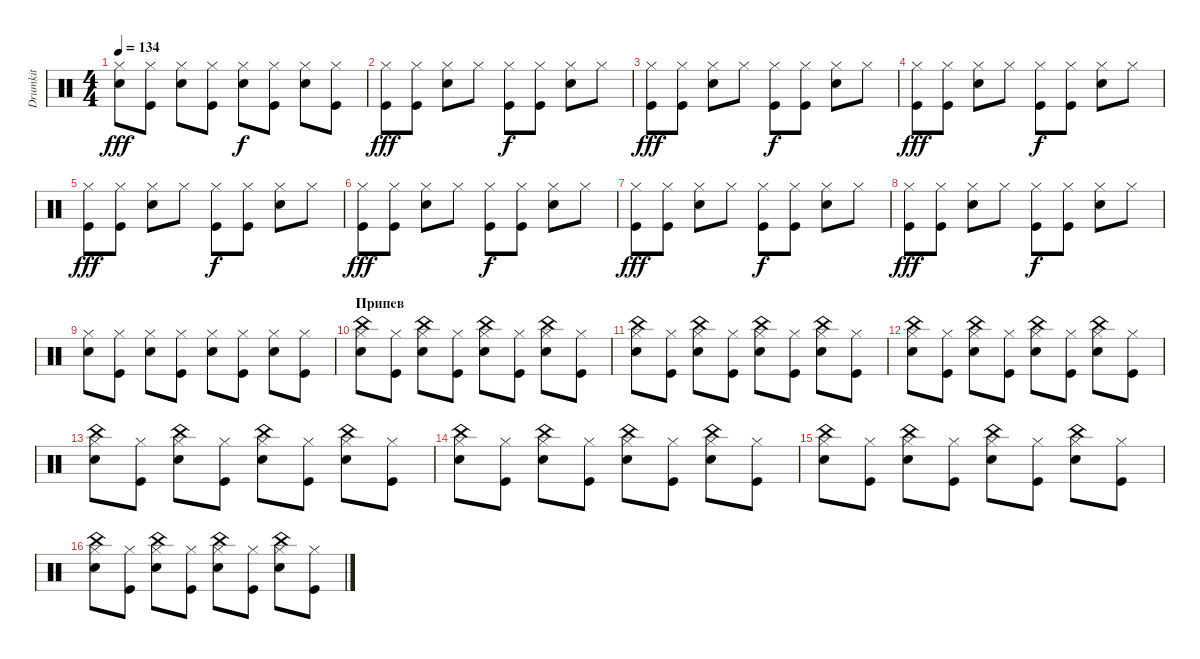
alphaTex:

\track ("Drumkit" "Drumkit") {instrument percussion}
\staff {score}
\articulation defaults
\ts (4 4)
\tempo 134
\clef neutral
\ks c
("Hi-Hat (closed)" "Snare (hit) 2").8{dy fff} ("Hi-Hat (closed)" "Kick (hit)").8 ("Hi-Hat (closed)" "Snare (hit) 2").8 ("Hi-Hat (closed)" "Kick (hit)").8 ("Hi-Hat (closed)" "Snare (hit) 2").8{dy f} ("Hi-Hat (closed)" "Kick (hit)").8 ("Hi-Hat (closed)" "Snare (hit) 2").8 ("Hi-Hat (closed)" "Kick (hit)").8 |
("Hi-Hat (closed)" "Kick (hit)").8{dy fff} ("Hi-Hat (closed)" "Kick (hit)").8 ("Hi-Hat (closed)" "Snare (hit) 2").8 "Hi-Hat (closed)".8 ("Hi-Hat (closed)" "Kick (hit)").8{dy f} ("Hi-Hat (closed)" "Kick (hit)").8 ("Hi-Hat (closed)" "Snare (hit) 2").8 "Hi-Hat (closed)".8 |
("Hi-Hat (closed)" "Kick (hit)").8{dy fff} ("Hi-Hat (closed)" "Kick (hit)").8 ("Hi-Hat (closed)" "Snare (hit) 2").8 "Hi-Hat (closed)".8 ("Hi-Hat (closed)" "Kick (hit)").8{dy f} ("Hi-Hat (closed)" "Kick (hit)").8 ("Hi-Hat (closed)" "Snare (hit) 2").8 "Hi-Hat (closed)".8 |
("Hi-Hat (closed)" "Kick (hit)").8{dy fff} ("Hi-Hat (closed)" "Kick (hit)").8 ("Hi-Hat (closed)" "Snare (hit) 2").8 "Hi-Hat (closed)".8 ("Hi-Hat (closed)" "Kick (hit)").8{dy f} ("Hi-Hat (closed)" "Kick (hit)").8 ("Hi-Hat (closed)" "Snare (hit) 2").8 "Hi-Hat (closed)".8 |
("Hi-Hat (closed)" "Kick (hit)").8{dy fff} ("Hi-Hat (closed)" "Kick (hit)").8 ("Hi-Hat (closed)" "Snare (hit) 2").8 "Hi-Hat (closed)".8 ("Hi-Hat (closed)" "Kick (hit)").8{dy f} ("Hi-Hat (closed)" "Kick (hit)").8 ("Hi-Hat (closed)" "Snare (hit) 2").8 "Hi-Hat (closed)".8 |
("Hi-Hat (closed)" "Kick (hit)").8{dy fff} ("Hi-Hat (closed)" "Kick (hit)").8 ("Hi-Hat (closed)" "Snare (hit) 2").8 "Hi-Hat (closed)".8 ("Hi-Hat (closed)" "Kick (hit)").8{dy f} ("Hi-Hat (closed)" "Kick (hit)").8 ("Hi-Hat (closed)" "Snare (hit) 2").8 "Hi-Hat (closed)".8 |
("Hi-Hat (closed)" "Kick (hit)").8{dy fff} ("Hi-Hat (closed)" "Kick (hit)").8 ("Hi-Hat (closed)" "Snare (hit) 2").8 "Hi-Hat (closed)".8 ("Hi-Hat (closed)" "Kick (hit)").8{dy f} ("Hi-Hat (closed)" "Kick (hit)").8 ("Hi-Hat (closed)" "Snare (hit) 2").8 "Hi-Hat (closed)".8 |
("Hi-Hat (closed)" "Kick (hit)").8{dy fff} ("Hi-Hat (closed)" "Kick (hit)").8 ("Hi-Hat (closed)" "Snare (hit) 2").8 "Hi-Hat (closed)".8 ("Hi-Hat (closed)" "Kick (hit)").8{dy f} ("Hi-Hat (closed)" "Kick (hit)").8 ("Hi-Hat (closed)" "Snare (hit) 2").8 "Hi-Hat (closed)".8 |
("Snare (hit) 2" "Hi-Hat (closed)").8 ("Kick (hit)" "Hi-Hat (closed)").8 ("Snare (hit) 2" "Hi-Hat (closed)").8 ("Kick (hit)" "Hi-Hat (closed)").8 ("Snare (hit) 2" "Hi-Hat (closed)").8 ("Kick (hit)" "Hi-Hat (closed)").8 ("Snare (hit) 2" "Hi-Hat (closed)").8 ("Kick (hit)" "Hi-Hat (closed)").8 |
\section ("" "Припев")
("Snare (hit) 2" "Hi-Hat (closed)" "China (hit)").8 ("Kick (hit)" "Hi-Hat (closed)").8 ("Snare (hit) 2" "Hi-Hat (closed)" "China (hit)").8 ("Kick (hit)" "Hi-Hat (closed)").8 ("Snare (hit) 2" "Hi-Hat (closed)" "China (hit)").8 ("Kick (hit)" "Hi-Hat (closed)").8 ("Snare (hit) 2" "Hi-Hat (closed)" "China (hit)").8 ("Kick (hit)" "Hi-Hat (closed)").8 |
("Snare (hit) 2" "Hi-Hat (closed)" "China (hit)").8 ("Kick (hit)" "Hi-Hat (closed)").8 ("Snare (hit) 2" "Hi-Hat (closed)" "China (hit)").8 ("Kick (hit)" "Hi-Hat (closed)").8 ("Snare (hit) 2" "Hi-Hat (closed)" "China (hit)").8 ("Kick (hit)" "Hi-Hat (closed)").8 ("Snare (hit) 2" "Hi-Hat (closed)" "China (hit)").8 ("Kick (hit)" "Hi-Hat (closed)").8 |
("Snare (hit) 2" "Hi-Hat (closed)" "China (hit)").8 ("Kick (hit)" "Hi-Hat (closed)").8 ("Snare (hit) 2" "Hi-Hat (closed)" "China (hit)").8 ("Kick (hit)" "Hi-Hat (closed)").8 ("Snare (hit) 2" "Hi-Hat (closed)" "China (hit)").8 ("Kick (hit)" "Hi-Hat (closed)").8 ("Snare (hit) 2" "Hi-Hat (closed)" "China (hit)").8 ("Kick (hit)" "Hi-Hat (closed)").8 |
("Snare (hit) 2" "Hi-Hat (closed)" "China (hit)").8 ("Kick (hit)" "Hi-Hat (closed)").8 ("Snare (hit) 2" "Hi-Hat (closed)" "China (hit)").8 ("Kick (hit)" "Hi-Hat (closed)").8 ("Snare (hit) 2" "Hi-Hat (closed)" "China (hit)").8 ("Kick (hit)" "Hi-Hat (closed)").8 ("Snare (hit) 2" "Hi-Hat (closed)" "China (hit)").8 ("Kick (hit)" "Hi-Hat (closed)").8 |
("Snare (hit) 2" "Hi-Hat (closed)" "China (hit)").8 ("Kick (hit)" "Hi-Hat (closed)").8 ("Snare (hit) 2" "Hi-Hat (closed)" "China (hit)").8 ("Kick (hit)" "Hi-Hat (closed)").8 ("Snare (hit) 2" "Hi-Hat (closed)" "China (hit)").8 ("Kick (hit)" "Hi-Hat (closed)").8 ("Snare (hit) 2" "Hi-Hat (closed)" "China (hit)").8 ("Kick (hit)" "Hi-Hat (closed)").8 |
("Snare (hit) 2" "Hi-Hat (closed)" "China (hit)").8 ("Kick (hit)" "Hi-Hat (closed)").8 ("Snare (hit) 2" "Hi-Hat (closed)" "China (hit)").8 ("Kick (hit)" "Hi-Hat (closed)").8 ("Snare (hit) 2" "Hi-Hat (closed)" "China (hit)").8 ("Kick (hit)" "Hi-Hat (closed)").8 ("Snare (hit) 2" "Hi-Hat (closed)" "China (hit)").8 ("Kick (hit)" "Hi-Hat (closed)").8 |
("Snare (hit) 2" "Hi-Hat (closed)" "China (hit)").8 ("Kick (hit)" "Hi-Hat (closed)").8 ("Snare (hit) 2" "Hi-Hat (closed)" "China (hit)").8 ("Kick (hit)" "Hi-Hat (closed)").8 ("Snare (hit) 2" "Hi-Hat (closed)" "China (hit)").8 ("Kick (hit)" "Hi-Hat (closed)").8 ("Snare (hit) 2" "Hi-Hat (closed)" "China (hit)").8 ("Kick (hit)" "Hi-Hat (closed)").8
